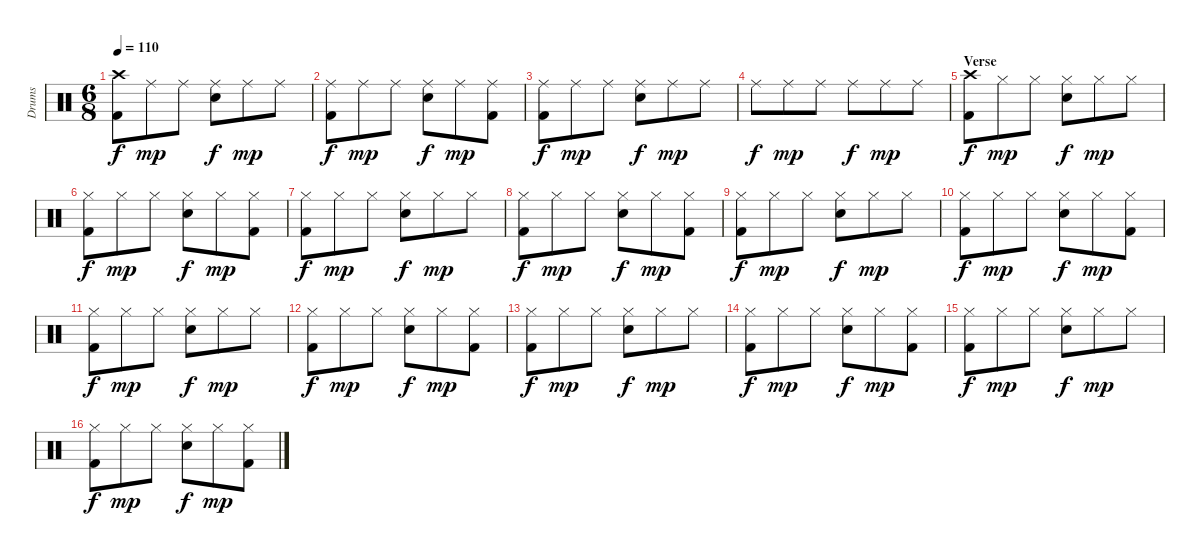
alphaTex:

\track ("Drums" "Drums") {instrument percussion}
\staff {score}
\articulation defaults
\ts (6 8)
\tempo 110
\clef neutral
\ks c
("Crash high (hit)" "Kick (hit) 2").8{dy f} "Ride (middle)".8{dy mp} "Ride (middle)".8 ("Ride (middle)" "Electric Snare (hit)").8{dy f} "Ride (middle)".8{dy mp} "Ride (middle)".8 |
("Ride (middle)" "Kick (hit) 2").8{dy f} "Ride (middle)".8{dy mp} "Ride (middle)".8 ("Ride (middle)" "Electric Snare (hit)").8{dy f} "Ride (middle)".8{dy mp} ("Ride (middle)" "Kick (hit) 2").8 |
("Ride (middle)" "Kick (hit) 2").8{dy f} "Ride (middle)".8{dy mp} "Ride (middle)".8 ("Ride (middle)" "Electric Snare (hit)").8{dy f} "Ride (middle)".8{dy mp} "Ride (middle)".8 |
"Ride (middle)".8{dy f} "Ride (middle)".8{dy mp} "Ride (middle)".8 "Ride (middle)".8{dy f} "Ride (middle)".8{dy mp} "Ride (middle)".8 |
\section ("" "Verse")
("Crash high (hit)" "Kick (hit) 2").8{dy f} "Hi-Hat (closed)".8{dy mp} "Hi-Hat (closed)".8 ("Hi-Hat (closed)" "Electric Snare (hit)").8{dy f} "Hi-Hat (closed)".8{dy mp} "Hi-Hat (closed)".8 |
("Hi-Hat (closed)" "Kick (hit) 2").8{dy f} "Hi-Hat (closed)".8{dy mp} "Hi-Hat (closed)".8 ("Hi-Hat (closed)" "Electric Snare (hit)").8{dy f} "Hi-Hat (closed)".8{dy mp} ("Hi-Hat (closed)" "Kick (hit) 2").8 |
("Hi-Hat (closed)" "Kick (hit) 2").8{dy f} "Hi-Hat (closed)".8{dy mp} "Hi-Hat (closed)".8 ("Hi-Hat (closed)" "Electric Snare (hit)").8{dy f} "Hi-Hat (closed)".8{dy mp} "Hi-Hat (closed)".8 |
("Hi-Hat (closed)" "Kick (hit) 2").8{dy f} "Hi-Hat (closed)".8{dy mp} "Hi-Hat (closed)".8 ("Hi-Hat (closed)" "Electric Snare (hit)").8{dy f} "Hi-Hat (closed)".8{dy mp} ("Hi-Hat (closed)" "Kick (hit) 2").8 |
("Hi-Hat (closed)" "Kick (hit) 2").8{dy f} "Hi-Hat (closed)".8{dy mp} "Hi-Hat (closed)".8 ("Hi-Hat (closed)" "Electric Snare (hit)").8{dy f} "Hi-Hat (closed)".8{dy mp} "Hi-Hat (closed)".8 |
("Hi-Hat (closed)" "Kick (hit) 2").8{dy f} "Hi-Hat (closed)".8{dy mp} "Hi-Hat (closed)".8 ("Hi-Hat (closed)" "Electric Snare (hit)").8{dy f} "Hi-Hat (closed)".8{dy mp} ("Hi-Hat (closed)" "Kick (hit) 2").8 |
("Hi-Hat (closed)" "Kick (hit) 2").8{dy f} "Hi-Hat (closed)".8{dy mp} "Hi-Hat (closed)".8 ("Hi-Hat (closed)" "Electric Snare (hit)").8{dy f} "Hi-Hat (closed)".8{dy mp} "Hi-Hat (closed)".8 |
("Hi-Hat (closed)" "Kick (hit) 2").8{dy f} "Hi-Hat (closed)".8{dy mp} "Hi-Hat (closed)".8 ("Hi-Hat (closed)" "Electric Snare (hit)").8{dy f} "Hi-Hat (closed)".8{dy mp} ("Hi-Hat (closed)" "Kick (hit) 2").8 |
("Hi-Hat (closed)" "Kick (hit) 2").8{dy f} "Hi-Hat (closed)".8{dy mp} "Hi-Hat (closed)".8 ("Hi-Hat (closed)" "Electric Snare (hit)").8{dy f} "Hi-Hat (closed)".8{dy mp} "Hi-Hat (closed)".8 |
("Hi-Hat (closed)" "Kick (hit) 2").8{dy f} "Hi-Hat (closed)".8{dy mp} "Hi-Hat (closed)".8 ("Hi-Hat (closed)" "Electric Snare (hit)").8{dy f} "Hi-Hat (closed)".8{dy mp} ("Hi-Hat (closed)" "Kick (hit) 2").8 |
("Hi-Hat (closed)" "Kick (hit) 2").8{dy f} "Hi-Hat (closed)".8{dy mp} "Hi-Hat (closed)".8 ("Hi-Hat (closed)" "Electric Snare (hit)").8{dy f} "Hi-Hat (closed)".8{dy mp} "Hi-Hat (closed)".8 |
("Hi-Hat (closed)" "Kick (hit) 2").8{dy f} "Hi-Hat (closed)".8{dy mp} "Hi-Hat (closed)".8 ("Hi-Hat (closed)" "Electric Snare (hit)").8{dy f} "Hi-Hat (closed)".8{dy mp} ("Hi-Hat (closed)" "Kick (hit) 2").8
